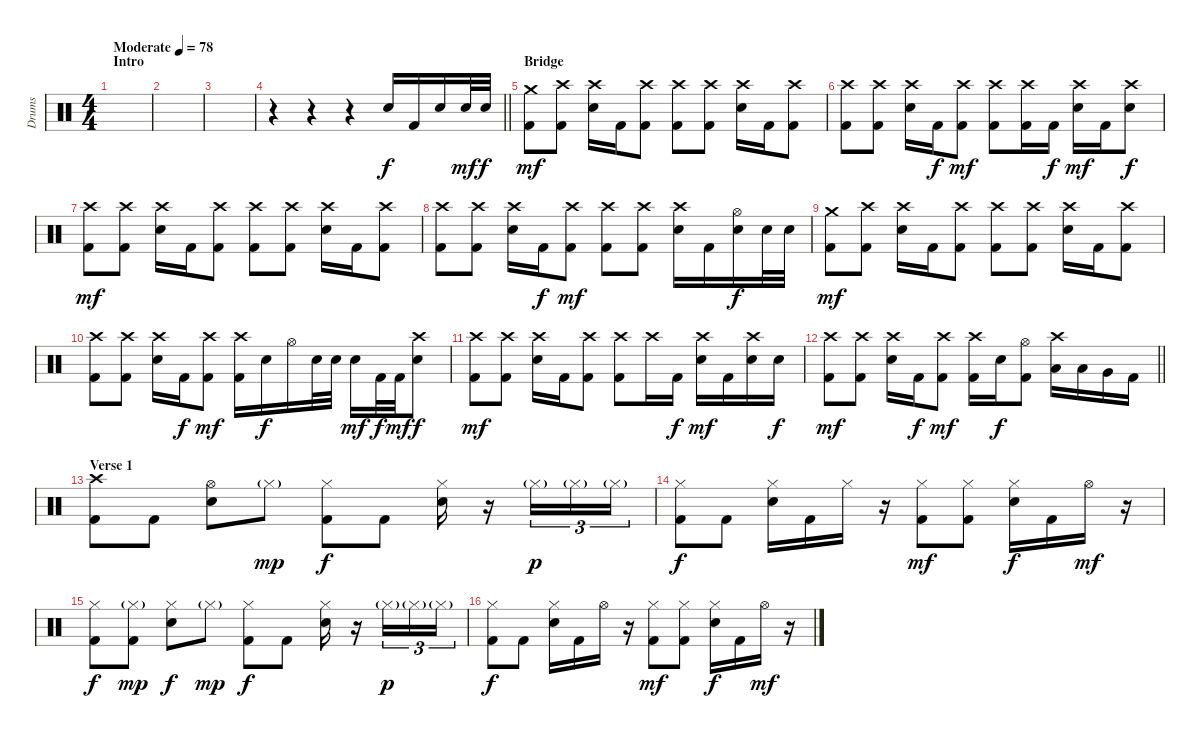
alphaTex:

\track ("Drums" "Drums") {instrument percussion}
\staff {score}
\articulation defaults
\ts (4 4)
\section ("" "Intro")
\tempo (78 "Moderate")
\clef neutral
\ks c
|
|
|
\barLineRight lightlight
r.4 r.4 r.4 "Electric Snare (hit)".16 "Kick (hit) 2".16 "Electric Snare (hit)".16 "Electric Snare (hit)".32{dy mf} "Electric Snare (hit)".32{dy f} |
\section ("" "Bridge")
("Crash medium (hit)" "Kick (hit) 2").8{dy mf} ("Crash high (hit)" "Kick (hit) 2").8 ("Crash high (hit)" "Electric Snare (hit)").16 "Kick (hit) 2".16 ("Crash high (hit)" "Kick (hit) 2").8 ("Crash high (hit)" "Kick (hit) 2").8 ("Crash high (hit)" "Kick (hit) 2").8 ("Crash high (hit)" "Electric Snare (hit)").16 "Kick (hit) 2".16 ("Crash high (hit)" "Kick (hit) 2").8 |
("Crash high (hit)" "Kick (hit) 2").8 ("Crash high (hit)" "Kick (hit) 2").8 ("Crash high (hit)" "Electric Snare (hit)").16 "Kick (hit) 2".16{dy f} ("Crash high (hit)" "Kick (hit) 2").8{dy mf} ("Crash high (hit)" "Kick (hit) 2").8 ("Crash high (hit)" "Kick (hit) 2").16 "Kick (hit) 2".16{dy f} ("Crash high (hit)" "Electric Snare (hit)").16{dy mf} "Kick (hit) 2".16 ("Crash high (hit)" "Electric Snare (hit)").8{dy f} |
("Crash high (hit)" "Kick (hit) 2").8{dy mf} ("Crash high (hit)" "Kick (hit) 2").8 ("Crash high (hit)" "Electric Snare (hit)").16 "Kick (hit) 2".16 ("Crash high (hit)" "Kick (hit) 2").8 ("Crash high (hit)" "Kick (hit) 2").8 ("Crash high (hit)" "Kick (hit) 2").8 ("Crash high (hit)" "Electric Snare (hit)").16 "Kick (hit) 2".16 ("Crash high (hit)" "Kick (hit) 2").8 |
("Crash high (hit)" "Kick (hit) 2").8 ("Crash high (hit)" "Kick (hit) 2").8 ("Crash high (hit)" "Electric Snare (hit)").16 "Kick (hit) 2".16{dy f} ("Crash high (hit)" "Kick (hit) 2").8{dy mf} ("Crash high (hit)" "Kick (hit) 2").8 ("Crash high (hit)" "Kick (hit) 2").8 ("Crash high (hit)" "Electric Snare (hit)").16 "Kick (hit) 2".16 ("Hi-Hat (open)" "Electric Snare (hit)").16{dy f} "Electric Snare (hit)".32 "Electric Snare (hit)".32 |
("Crash medium (hit)" "Kick (hit) 2").8{dy mf} ("Crash high (hit)" "Kick (hit) 2").8 ("Crash high (hit)" "Electric Snare (hit)").16 "Kick (hit) 2".16 ("Crash high (hit)" "Kick (hit) 2").8 ("Crash high (hit)" "Kick (hit) 2").8 ("Crash high (hit)" "Kick (hit) 2").8 ("Crash high (hit)" "Electric Snare (hit)").16 "Kick (hit) 2".16 ("Crash high (hit)" "Kick (hit) 2").8 |
("Crash high (hit)" "Kick (hit) 2").8 ("Crash high (hit)" "Kick (hit) 2").8 ("Crash high (hit)" "Electric Snare (hit)").16 "Kick (hit) 2".16{dy f} ("Crash high (hit)" "Kick (hit) 2").8{dy mf} ("Crash high (hit)" "Kick (hit) 2").16 "Electric Snare (hit)".16{dy f} "Hi-Hat (open)".16 "Electric Snare (hit)".32 "Electric Snare (hit)".32 "Electric Snare (hit)".16{dy mf} "Kick (hit) 2".32{dy f} "Kick (hit) 2".32{dy mf} ("Crash high (hit)" "Electric Snare (hit)").8{dy f} |
("Crash high (hit)" "Kick (hit) 2").8{dy mf} ("Crash high (hit)" "Kick (hit) 2").8 ("Crash high (hit)" "Electric Snare (hit)").16 "Kick (hit) 2".16 ("Crash high (hit)" "Kick (hit) 2").8 ("Crash high (hit)" "Kick (hit) 2").8 "Crash high (hit)".16 "Kick (hit) 2".16{dy f} ("Crash high (hit)" "Electric Snare (hit)").16{dy mf} "Kick (hit) 2".16 ("Crash high (hit)" "Electric Snare (hit)").16 "Electric Snare (hit)".16{dy f} |
\barLineRight lightlight
("Crash high (hit)" "Kick (hit) 2").8{dy mf} ("Crash high (hit)" "Kick (hit) 2").8 ("Crash high (hit)" "Electric Snare (hit)").16 "Kick (hit) 2".16{dy f} ("Crash high (hit)" "Kick (hit) 2").8{dy mf} ("Crash high (hit)" "Kick (hit) 2").16 "Electric Snare (hit)".16{dy f} ("Hi-Hat (open)" "Kick (hit) 2").8 ("Crash high (hit)" "Low Tom (hit)").16 "Low Tom (hit)".16 "Very Low Tom (hit)".16 "Kick (hit) 2".16 |
\section ("" "Verse 1")
("Crash high (hit)" "Kick (hit) 2").8 "Kick (hit) 2".8 ("Hi-Hat (open)" "Electric Snare (hit)").8 "Hi-Hat (closed)"{g}.8{dy mp} ("Hi-Hat (closed)" "Kick (hit) 2").8{dy f} "Kick (hit) 2".8 ("Hi-Hat (closed)" "Electric Snare (hit)").16 r.16 "Hi-Hat (closed)"{g}.16{tu (3 2) dy p} "Hi-Hat (closed)"{g}.16{tu (3 2)} "Hi-Hat (closed)"{g}.16{tu (3 2)} |
("Hi-Hat (closed)" "Kick (hit) 2").8{dy f} "Kick (hit) 2".8 ("Hi-Hat (closed)" "Electric Snare (hit)").16 "Kick (hit) 2".16 "Hi-Hat (closed)".16 r.16 ("Hi-Hat (closed)" "Kick (hit) 2").8{dy mf} ("Hi-Hat (closed)" "Kick (hit) 2").8 ("Hi-Hat (closed)" "Electric Snare (hit)").16{dy f} "Kick (hit) 2".16 "Hi-Hat (open)".16{dy mf} r.16 |
("Hi-Hat (closed)" "Kick (hit) 2").8{dy f} ("Hi-Hat (closed)"{g} "Kick (hit) 2").8{dy mp} ("Hi-Hat (closed)" "Electric Snare (hit)").8{dy f} "Hi-Hat (closed)"{g}.8{dy mp} ("Hi-Hat (closed)" "Kick (hit) 2").8{dy f} "Kick (hit) 2".8 ("Hi-Hat (closed)" "Electric Snare (hit)").16 r.16 "Hi-Hat (closed)"{g}.16{tu (3 2) dy p} "Hi-Hat (closed)"{g}.16{tu (3 2)} "Hi-Hat (closed)"{g}.16{tu (3 2)} |
("Hi-Hat (closed)" "Kick (hit) 2").8{dy f} "Kick (hit) 2".8 ("Hi-Hat (closed)" "Electric Snare (hit)").16 "Kick (hit) 2".16 "Hi-Hat (open)".16 r.16 ("Hi-Hat (closed)" "Kick (hit) 2").8{dy mf} ("Hi-Hat (closed)" "Kick (hit) 2").8 ("Hi-Hat (closed)" "Electric Snare (hit)").16{dy f} "Kick (hit) 2".16 "Hi-Hat (open)".16{dy mf} r.16
